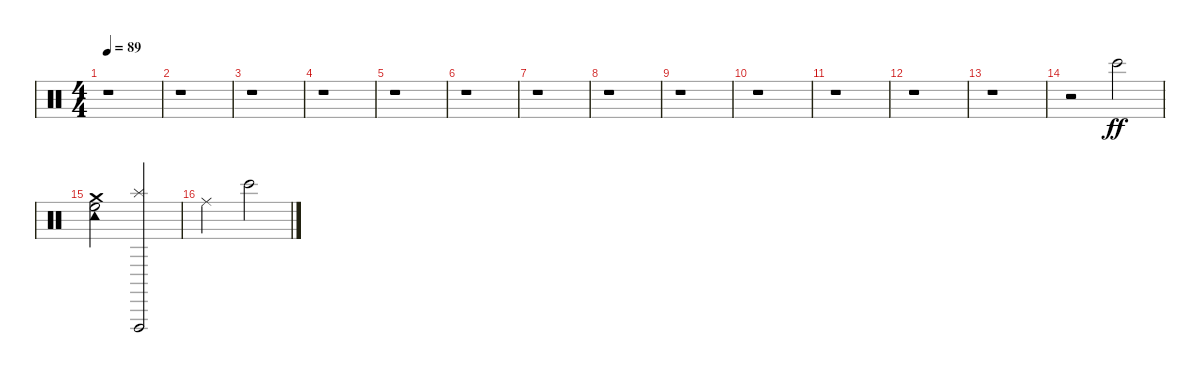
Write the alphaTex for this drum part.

\track "" {instrument percussion}
\staff {score}
\articulation defaults
\ts (4 4)
\tempo 89
\clef neutral
\ks c
r.1{dy f} |
r.1 |
r.1 |
r.1 |
r.1 |
r.1 |
r.1 |
r.1 |
r.1 |
r.1 |
r.1 |
r.1 |
r.1 |
r.2 "Bongo High (hit)".2{dy ff} |
("Crash medium (hit)" "Tambourine (hit)" "High Floor Tom (hit)").2 ("Splash (hit)" "Vibraslap (hit)").2 |
"Ride (middle)".2 "Bongo High (hit)".2
